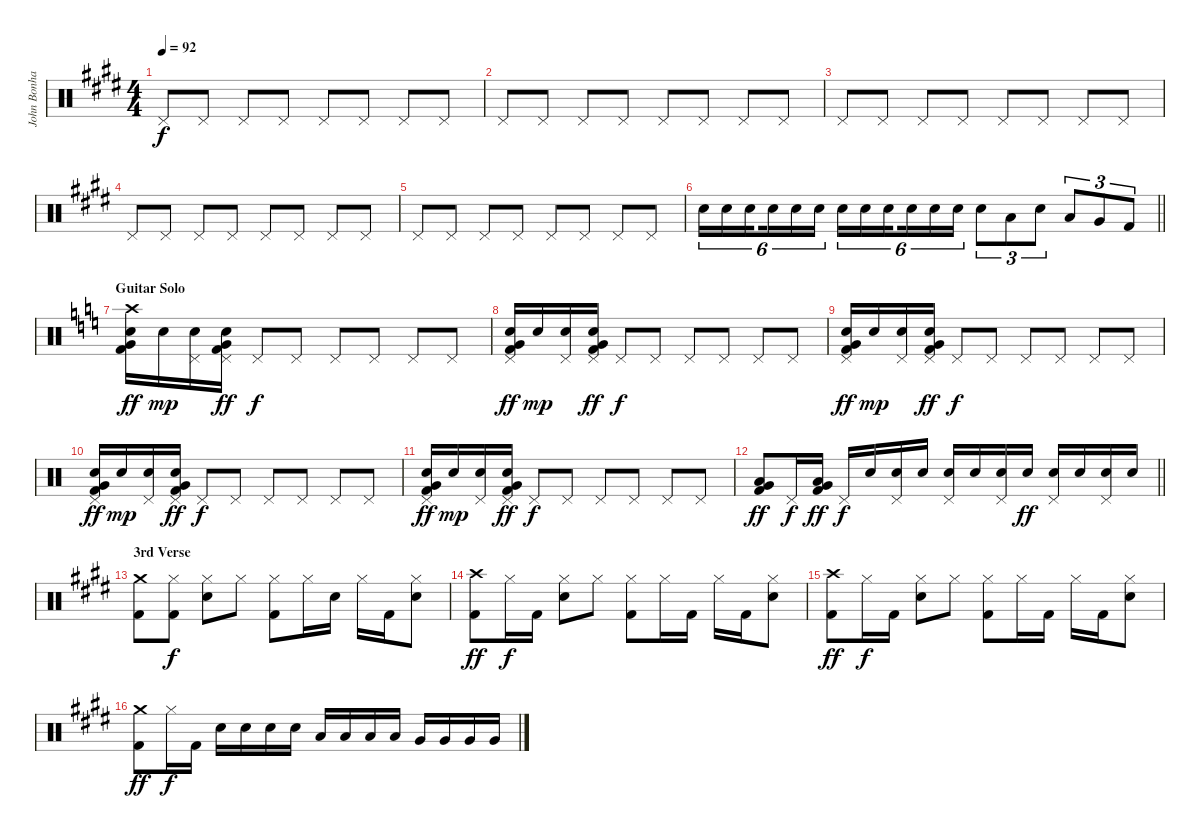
\track ("John Bonham Drums" "John Bonha") {instrument percussion}
\staff {score}
\articulation defaults
\ts (4 4)
\tempo 92
\clef neutral
\ks e "Pedal Hi-Hat (hit)".8{dy f} "Pedal Hi-Hat (hit)".8 "Pedal Hi-Hat (hit)".8 "Pedal Hi-Hat (hit)".8 "Pedal Hi-Hat (hit)".8 "Pedal Hi-Hat (hit)".8 "Pedal Hi-Hat (hit)".8 "Pedal Hi-Hat (hit)".8
|
"Pedal Hi-Hat (hit)".8 "Pedal Hi-Hat (hit)".8 "Pedal Hi-Hat (hit)".8 "Pedal Hi-Hat (hit)".8 "Pedal Hi-Hat (hit)".8 "Pedal Hi-Hat (hit)".8 "Pedal Hi-Hat (hit)".8 "Pedal Hi-Hat (hit)".8 |
"Pedal Hi-Hat (hit)".8 "Pedal Hi-Hat (hit)".8 "Pedal Hi-Hat (hit)".8 "Pedal Hi-Hat (hit)".8 "Pedal Hi-Hat (hit)".8 "Pedal Hi-Hat (hit)".8 "Pedal Hi-Hat (hit)".8 "Pedal Hi-Hat (hit)".8 |
"Pedal Hi-Hat (hit)".8 "Pedal Hi-Hat (hit)".8 "Pedal Hi-Hat (hit)".8 "Pedal Hi-Hat (hit)".8 "Pedal Hi-Hat (hit)".8 "Pedal Hi-Hat (hit)".8 "Pedal Hi-Hat (hit)".8 "Pedal Hi-Hat (hit)".8 |
"Pedal Hi-Hat (hit)".8 "Pedal Hi-Hat (hit)".8 "Pedal Hi-Hat (hit)".8 "Pedal Hi-Hat (hit)".8 "Pedal Hi-Hat (hit)".8 "Pedal Hi-Hat (hit)".8 "Pedal Hi-Hat (hit)".8 "Pedal Hi-Hat (hit)".8 |
\barLineRight lightlight "Snare (hit) 2".16{tu (6 4)} "Snare (hit) 2".16{tu (6 4)} "Snare (hit) 2".16{tu (6 4) beam splitsecondary} "Snare (hit) 2".16{tu (6 4)} "Snare (hit) 2".16{tu (6 4)} "Snare (hit) 2".16{tu (6 4)} "Snare (hit) 2".16{tu (6 4)} "Snare (hit) 2".16{tu (6 4)} "Snare (hit) 2".16{tu (6 4) beam splitsecondary} "Snare (hit) 2".16{tu (6 4)} "Snare (hit) 2".16{tu (6 4)} "Snare (hit) 2".16{tu (6 4)} "Snare (hit) 2".8{tu (3 2)} "Low Tom (hit)".8{tu (3 2)} "Snare (hit) 2".8{tu (3 2)} "Low Tom (hit)".8{tu (3 2)} "Very Low Tom (hit)".8{tu (3 2)} "Kick (hit) 2".8{tu (3 2)}
|
\section ("" "Guitar Solo")
\ks c
("Crash high (hit)" "Snare (hit) 2" "Very Low Tom (hit)" "Kick (hit) 2").16{dy ff} "Snare (hit) 2".16{dy mp} ("Pedal Hi-Hat (hit)" "Snare (hit) 2").16 ("Pedal Hi-Hat (hit)" "Snare (hit) 2" "Very Low Tom (hit)" "Kick (hit) 2").16{dy ff} "Pedal Hi-Hat (hit)".8{dy f} "Pedal Hi-Hat (hit)".8 "Pedal Hi-Hat (hit)".8 "Pedal Hi-Hat (hit)".8 "Pedal Hi-Hat (hit)".8 "Pedal Hi-Hat (hit)".8 |
("Pedal Hi-Hat (hit)" "Snare (hit) 2" "Very Low Tom (hit)" "Kick (hit) 2").16{dy ff} "Snare (hit) 2".16{dy mp} ("Pedal Hi-Hat (hit)" "Snare (hit) 2").16 ("Pedal Hi-Hat (hit)" "Snare (hit) 2" "Very Low Tom (hit)" "Kick (hit) 2").16{dy ff} "Pedal Hi-Hat (hit)".8{dy f} "Pedal Hi-Hat (hit)".8 "Pedal Hi-Hat (hit)".8 "Pedal Hi-Hat (hit)".8 "Pedal Hi-Hat (hit)".8 "Pedal Hi-Hat (hit)".8 |
("Pedal Hi-Hat (hit)" "Snare (hit) 2" "Very Low Tom (hit)" "Kick (hit) 2").16{dy ff} "Snare (hit) 2".16{dy mp} ("Pedal Hi-Hat (hit)" "Snare (hit) 2").16 ("Pedal Hi-Hat (hit)" "Snare (hit) 2" "Very Low Tom (hit)" "Kick (hit) 2").16{dy ff} "Pedal Hi-Hat (hit)".8{dy f} "Pedal Hi-Hat (hit)".8 "Pedal Hi-Hat (hit)".8 "Pedal Hi-Hat (hit)".8 "Pedal Hi-Hat (hit)".8 "Pedal Hi-Hat (hit)".8 |
("Pedal Hi-Hat (hit)" "Snare (hit) 2" "Very Low Tom (hit)" "Kick (hit) 2").16{dy ff} "Snare (hit) 2".16{dy mp} ("Pedal Hi-Hat (hit)" "Snare (hit) 2").16 ("Pedal Hi-Hat (hit)" "Snare (hit) 2" "Very Low Tom (hit)" "Kick (hit) 2").16{dy ff} "Pedal Hi-Hat (hit)".8{dy f} "Pedal Hi-Hat (hit)".8 "Pedal Hi-Hat (hit)".8 "Pedal Hi-Hat (hit)".8 "Pedal Hi-Hat (hit)".8 "Pedal Hi-Hat (hit)".8 |
("Pedal Hi-Hat (hit)" "Snare (hit) 2" "Very Low Tom (hit)" "Kick (hit) 2").16{dy ff} "Snare (hit) 2".16{dy mp} ("Pedal Hi-Hat (hit)" "Snare (hit) 2").16 ("Pedal Hi-Hat (hit)" "Snare (hit) 2" "Very Low Tom (hit)" "Kick (hit) 2").16{dy ff} "Pedal Hi-Hat (hit)".8{dy f} "Pedal Hi-Hat (hit)".8 "Pedal Hi-Hat (hit)".8 "Pedal Hi-Hat (hit)".8 "Pedal Hi-Hat (hit)".8 "Pedal Hi-Hat (hit)".8 |
\barLineRight lightlight
("Very Low Tom (hit)" "Low Tom (hit)" "Kick (hit) 2").8{dy ff} "Pedal Hi-Hat (hit)".16{dy f} ("Very Low Tom (hit)" "Low Tom (hit)" "Kick (hit) 2").16{dy ff} "Pedal Hi-Hat (hit)".16{dy f} "Snare (hit) 2".16 ("Pedal Hi-Hat (hit)" "Snare (hit) 2").16 "Snare (hit) 2".16 ("Pedal Hi-Hat (hit)" "Snare (hit) 2").16 "Snare (hit) 2".16 ("Pedal Hi-Hat (hit)" "Snare (hit) 2").16 "Snare (hit) 2".16{dy ff} ("Pedal Hi-Hat (hit)" "Snare (hit) 2").16 "Snare (hit) 2".16 ("Pedal Hi-Hat (hit)" "Snare (hit) 2").16 "Snare (hit) 2".16 |
\section ("" "3rd Verse")
\ks e
("Crash medium (hit)" "Kick (hit) 2").8 ("Hi-Hat (closed)" "Kick (hit) 2").8{dy f} ("Hi-Hat (closed)" "Snare (hit) 2").8 "Hi-Hat (closed)".8 ("Hi-Hat (closed)" "Kick (hit) 2").8 "Hi-Hat (closed)".16 "Snare (hit) 2".16 "Hi-Hat (closed)".16 "Kick (hit) 2".16 ("Hi-Hat (closed)" "Snare (hit) 2").8 |
("Crash high (hit)" "Kick (hit) 2").8{dy ff} "Hi-Hat (closed)".16{dy f} "Kick (hit) 2".16 ("Hi-Hat (closed)" "Snare (hit) 2").8 "Hi-Hat (closed)".8 ("Hi-Hat (closed)" "Kick (hit) 2").8 "Hi-Hat (closed)".16 "Kick (hit) 2".16 "Hi-Hat (closed)".16 "Kick (hit) 2".16 ("Hi-Hat (closed)" "Snare (hit) 2").8 |
("Crash high (hit)" "Kick (hit) 2").8{dy ff} "Hi-Hat (closed)".16{dy f} "Kick (hit) 2".16 ("Hi-Hat (closed)" "Snare (hit) 2").8 "Hi-Hat (closed)".8 ("Hi-Hat (closed)" "Kick (hit) 2").8 "Hi-Hat (closed)".16 "Kick (hit) 2".16 "Hi-Hat (closed)".16 "Kick (hit) 2".16 ("Hi-Hat (closed)" "Snare (hit) 2").8 |
("Crash medium (hit)" "Kick (hit) 2").8{dy ff} "Hi-Hat (closed)".16{dy f} "Kick (hit) 2".16 "Snare (hit) 2".16 "Snare (hit) 2".16 "Snare (hit) 2".16 "Snare (hit) 2".16 "Low Tom (hit)".16 "Low Tom (hit)".16 "Low Tom (hit)".16 "Low Tom (hit)".16 "Very Low Tom (hit)".16 "Very Low Tom (hit)".16 "Very Low Tom (hit)".16 "Very Low Tom (hit)".16
